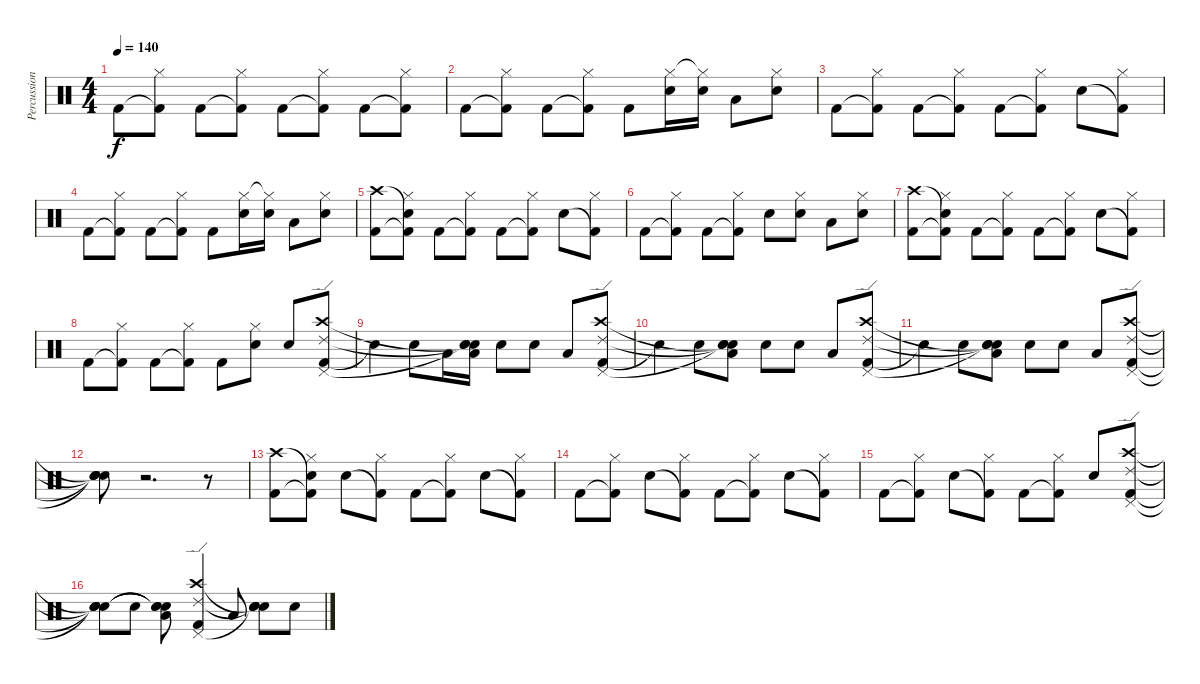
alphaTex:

\track ("Percussion" "Percussion") {instrument percussion}
\staff {score}
\articulation defaults
\ts (4 4)
\tempo 140
\clef neutral
\ks c "Kick (hit) 2".8{dy f}
("Kick (hit) 2"{t} "Hi-Hat (closed)").8 "Kick (hit) 2".8 ("Kick (hit) 2"{t} "Hi-Hat (closed)").8 "Kick (hit) 2".8 ("Kick (hit) 2"{t} "Hi-Hat (closed)").8 "Kick (hit) 2".8 ("Kick (hit) 2"{t} "Hi-Hat (closed)").8 |
"Kick (hit) 2".8 ("Kick (hit) 2"{t} "Hi-Hat (closed)").8 "Kick (hit) 2".8 ("Kick (hit) 2"{t} "Hi-Hat (closed)").8 "Kick (hit) 2".8 ("Snare (hit) 2" "Hi-Hat (closed)").16 ("Snare (hit) 2" "Hi-Hat (closed)"{t}).16 "Low Tom (hit)".8 ("Snare (hit) 2" "Hi-Hat (closed)").8 |
"Kick (hit) 2".8 ("Kick (hit) 2"{t} "Hi-Hat (closed)").8 "Kick (hit) 2".8 ("Kick (hit) 2"{t} "Hi-Hat (closed)").8 "Kick (hit) 2".8 ("Kick (hit) 2"{t} "Hi-Hat (closed)").8 "Snare (hit) 2".8 ("Kick (hit) 2"{t} "Hi-Hat (closed)").8 |
"Kick (hit) 2".8 ("Kick (hit) 2"{t} "Hi-Hat (closed)").8 "Kick (hit) 2".8 ("Kick (hit) 2"{t} "Hi-Hat (closed)").8 "Kick (hit) 2".8 ("Snare (hit) 2" "Hi-Hat (closed)").16 ("Snare (hit) 2" "Hi-Hat (closed)"{t}).16 "Low Tom (hit)".8 ("Snare (hit) 2" "Hi-Hat (closed)").8 |
("Kick (hit) 2" "Crash high (hit)").8 ("Kick (hit) 2"{t} "Snare (hit)"{t} "Hi-Hat (closed)").8 "Kick (hit) 2".8 ("Kick (hit) 2"{t} "Hi-Hat (closed)").8 "Kick (hit) 2".8 ("Kick (hit) 2"{t} "Hi-Hat (closed)").8 "Snare (hit) 2".8 ("Kick (hit) 2"{t} "Hi-Hat (closed)").8 |
"Kick (hit) 2".8 ("Kick (hit) 2"{t} "Hi-Hat (closed)").8 "Kick (hit) 2".8 ("Kick (hit) 2"{t} "Hi-Hat (closed)").8 "Snare (hit) 2".8 ("Snare (hit) 2" "Hi-Hat (closed)").8 "Low Tom (hit)".8 ("Snare (hit) 2" "Hi-Hat (closed)").8 |
("Kick (hit) 2" "Crash high (hit)").8 ("Kick (hit) 2"{t} "Snare (hit)"{t} "Hi-Hat (closed)").8 "Kick (hit) 2".8 ("Kick (hit) 2"{t} "Hi-Hat (closed)").8 "Kick (hit) 2".8 ("Kick (hit) 2"{t} "Hi-Hat (closed)").8 "Snare (hit) 2".8 ("Kick (hit) 2"{t} "Hi-Hat (closed)").8 |
"Kick (hit) 2".8 ("Kick (hit) 2"{t} "Hi-Hat (closed)").8 "Kick (hit) 2".8 ("Kick (hit) 2"{t} "Hi-Hat (closed)").8 "Kick (hit) 2".8 ("Snare (hit) 2" "Hi-Hat (closed)").8 "Snare (hit) 2".8 ("Kick (hit) 2" "Crash high (hit)" "Ride (edge) 2" "Pedal Hi-Hat (hit)").8 |
"Snare (hit)"{t}.4 "Snare (hit) 2".8 "Low Tom (hit)".16 ("Low Tom (hit)" "Snare (hit)"{t} "Snare (hit)"{t} "Snare (hit)"{t}).16 "Snare (hit) 2".8 "Snare (hit) 2".8 "Low Tom (hit)".8 ("Kick (hit) 2" "Crash high (hit)" "Ride (edge) 2" "Pedal Hi-Hat (hit)").8 |
"Snare (hit)"{t}.4 "Snare (hit) 2".8 ("Low Tom (hit)" "Snare (hit)"{t} "Snare (hit)"{t} "Snare (hit)"{t}).8 "Snare (hit) 2".8 "Snare (hit) 2".8 "Low Tom (hit)".8 ("Kick (hit) 2" "Crash high (hit)" "Ride (edge) 2" "Pedal Hi-Hat (hit)").8 |
"Snare (hit)"{t}.4 "Snare (hit) 2".8 ("Low Tom (hit)" "Snare (hit)"{t} "Snare (hit)"{t} "Snare (hit)"{t}).8 "Snare (hit) 2".8 "Snare (hit) 2".8 "Low Tom (hit)".8 ("Kick (hit) 2" "Crash high (hit)" "Ride (edge) 2" "Pedal Hi-Hat (hit)").8 |
("Snare (hit)"{t} "Snare (hit)"{t} "Snare (hit)"{t} "Snare (hit)"{t}).8 r.2{d} r.8 |
("Kick (hit) 2" "Crash high (hit)").8 ("Kick (hit) 2"{t} "Snare (hit)"{t} "Hi-Hat (closed)").8 "Snare (hit) 2".8 ("Kick (hit) 2"{t} "Hi-Hat (closed)").8 "Kick (hit) 2".8 ("Kick (hit) 2"{t} "Hi-Hat (closed)").8 "Snare (hit) 2".8 ("Kick (hit) 2"{t} "Hi-Hat (closed)").8 |
"Kick (hit) 2".8 ("Kick (hit) 2"{t} "Hi-Hat (closed)").8 "Snare (hit) 2".8 ("Kick (hit) 2"{t} "Hi-Hat (closed)").8 "Kick (hit) 2".8 ("Kick (hit) 2"{t} "Hi-Hat (closed)").8 "Snare (hit) 2".8 ("Kick (hit) 2"{t} "Hi-Hat (closed)").8 |
"Kick (hit) 2".8 ("Kick (hit) 2"{t} "Hi-Hat (closed)").8 "Snare (hit) 2".8 ("Kick (hit) 2"{t} "Hi-Hat (closed)").8 "Kick (hit) 2".8 ("Kick (hit) 2"{t} "Hi-Hat (closed)").8 "Snare (hit) 2".8 ("Kick (hit) 2" "Crash high (hit)" "Ride (edge) 2" "Pedal Hi-Hat (hit)").8 |
("Snare (hit) 2"{t} "Snare (hit)"{t} "Snare (hit)"{t} "Snare (hit)"{t}).8 "Snare (hit) 2".8 ("Low Tom (hit)" "Snare (hit)"{t} "Snare (hit)"{t} "Snare (hit)"{t}).8 ("Kick (hit) 2" "Crash high (hit)" "Ride (edge) 2" "Pedal Hi-Hat (hit)").4 "Low Tom (hit)".8 ("Snare (hit) 2" "Snare (hit)"{t} "Snare (hit)"{t} "Snare (hit)"{t}).8 "Snare (hit) 2".8
